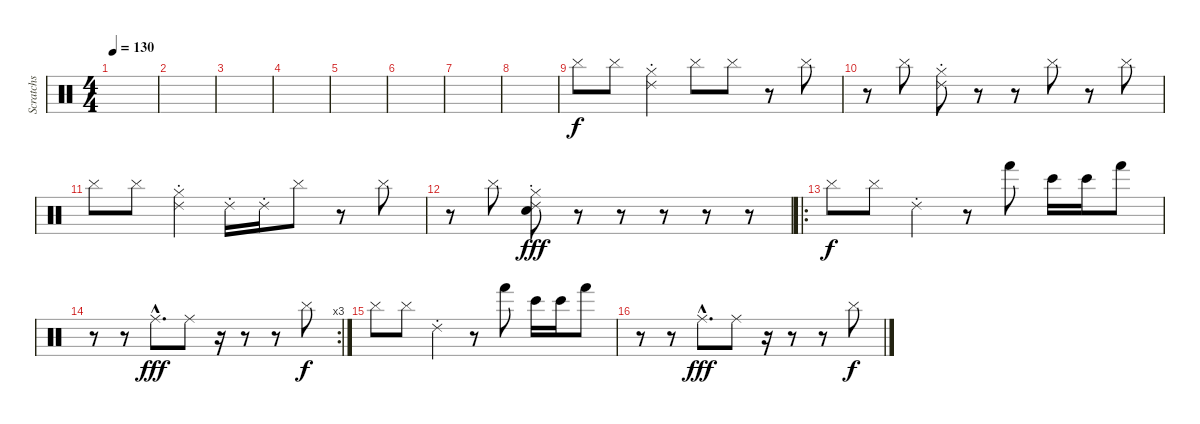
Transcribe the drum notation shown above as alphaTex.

\track ("Scratchs" "Scratchs") {instrument percussion}
\staff {score}
\articulation defaults
\ts (4 4)
\tempo 130
\clef neutral
\ks c
|
|
|
|
|
|
|
|
"Cymbal (hit)".8 "Cymbal (hit)".8 ("Ride (choke) 2" "Hi-Hat (closed)").4 "Cymbal (hit)".8 "Cymbal (hit)".8 r.8 "Cymbal (hit)".8 |
r.8 "Cymbal (hit)".8 ("Ride (choke) 2" "Hi-Hat (closed)").8 r.8 r.8 "Cymbal (hit)".8 r.8 "Cymbal (hit)".8 |
"Cymbal (hit)".8 "Cymbal (hit)".8 ("Ride (choke) 2" "Hi-Hat (closed)").4 "Ride (choke) 2".16 "Ride (choke) 2".16 "Cymbal (hit)".8 r.8 "Cymbal (hit)".8 |
r.8 "Cymbal (hit)".8 ("Ride (choke) 2" "Metronome (bell)" "Hi-Hat (closed)").8{dy fff} r.8 r.8 r.8 r.8 r.8 |
\ro "Cymbal (hit)".8{dy f} "Cymbal (hit)".8 "Ride (choke) 2".4
r.8 "Hand (hit)".8 "Bongo High (hit)".16 "Bongo High (hit)".16 "Hand (hit)".8 |
\rc 3
r.8 r.8 "Ride (middle)"{hac}.8{d dy fff} "Ride (middle)".8 r.16 r.8 r.8 "Cymbal (hit)".8{dy f} |
"Cymbal (hit)".8 "Cymbal (hit)".8 "Ride (choke) 2".4 r.8 "Hand (hit)".8 "Bongo High (hit)".16 "Bongo High (hit)".16 "Hand (hit)".8 |
r.8 r.8 "Ride (middle)"{hac}.8{d dy fff} "Ride (middle)".8 r.16 r.8 r.8 "Cymbal (hit)".8{dy f}
